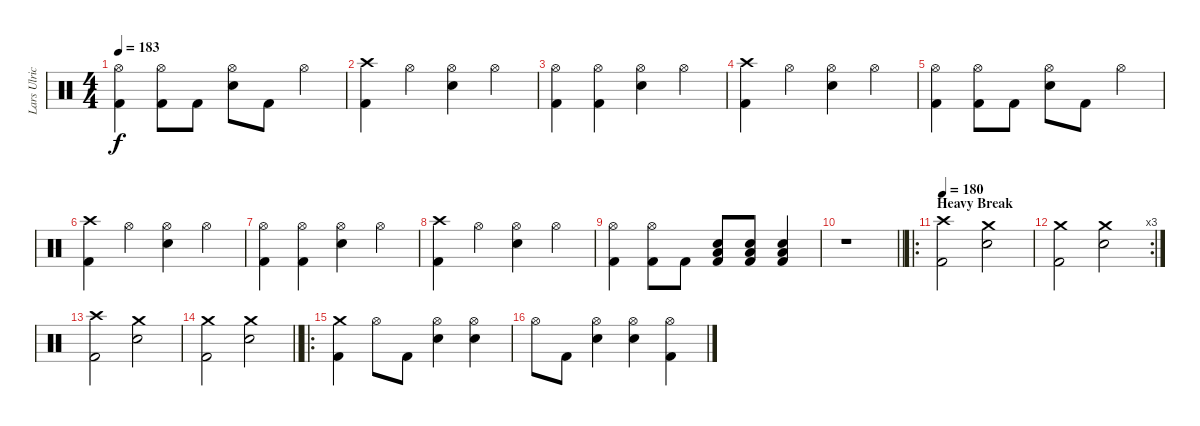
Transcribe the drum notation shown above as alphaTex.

\track ("Lars Ulrich" "Lars Ulric") {instrument percussion}
\staff {score}
\articulation defaults
\ts (4 4)
\tempo 183
\clef neutral
\ks c
("Hi-Hat (open)" "Kick (hit) 2").4{dy f} ("Hi-Hat (open)" "Kick (hit) 2").8 "Kick (hit) 2".8 ("Hi-Hat (open)" "Snare (hit) 2").8 "Kick (hit) 2".8 "Hi-Hat (open)".4 |
("Crash high (hit)" "Kick (hit) 2").4 "Hi-Hat (open)".4 ("Hi-Hat (open)" "Snare (hit) 2").4 "Hi-Hat (open)".4 |
("Hi-Hat (open)" "Kick (hit) 2").4 ("Hi-Hat (open)" "Kick (hit) 2").4 ("Hi-Hat (open)" "Snare (hit) 2").4 "Hi-Hat (open)".4 |
("Crash high (hit)" "Kick (hit) 2").4 "Hi-Hat (open)".4 ("Hi-Hat (open)" "Snare (hit) 2").4 "Hi-Hat (open)".4 |
("Hi-Hat (open)" "Kick (hit) 2").4 ("Hi-Hat (open)" "Kick (hit) 2").8 "Kick (hit) 2".8 ("Hi-Hat (open)" "Snare (hit) 2").8 "Kick (hit) 2".8 "Hi-Hat (open)".4 |
("Crash high (hit)" "Kick (hit) 2").4 "Hi-Hat (open)".4 ("Hi-Hat (open)" "Snare (hit) 2").4 "Hi-Hat (open)".4 |
("Hi-Hat (open)" "Kick (hit) 2").4 ("Hi-Hat (open)" "Kick (hit) 2").4 ("Hi-Hat (open)" "Snare (hit) 2").4 "Hi-Hat (open)".4 |
("Crash high (hit)" "Kick (hit) 2").4 "Hi-Hat (open)".4 ("Hi-Hat (open)" "Snare (hit) 2").4 "Hi-Hat (open)".4 |
("Hi-Hat (open)" "Kick (hit) 2").4 ("Hi-Hat (open)" "Kick (hit) 2").8 "Kick (hit) 2".8 ("Snare (hit) 2" "Low Floor Tom (hit)" "Kick (hit) 2").8 ("Snare (hit) 2" "Low Floor Tom (hit)" "Kick (hit) 2").8 ("Snare (hit) 2" "Low Floor Tom (hit)" "Kick (hit) 2").4 |
\barLineRight lightlight
r.1 |
\ro
\section ("" "Heavy Break")
\tempo 180
("Crash high (hit)" "Kick (hit) 2").2 ("Crash medium (hit)" "Snare (hit) 2").2 |
\rc 3
("Crash medium (hit)" "Kick (hit) 2").2 ("Crash medium (hit)" "Snare (hit) 2").2 |
("Crash high (hit)" "Kick (hit) 2").2 ("Crash medium (hit)" "Snare (hit) 2").2 |
\barLineRight lightlight
("Crash medium (hit)" "Kick (hit) 2").2 ("Crash medium (hit)" "Snare (hit) 2").2 |
\ro
("Crash medium (hit)" "Kick (hit) 2").4 "Hi-Hat (open)".8 "Kick (hit) 2".8 ("Hi-Hat (open)" "Snare (hit) 2").4 ("Hi-Hat (open)" "Snare (hit) 2").4 |
"Hi-Hat (open)".8 "Kick (hit) 2".8 ("Hi-Hat (open)" "Snare (hit) 2").4 ("Hi-Hat (open)" "Snare (hit) 2").4 ("Hi-Hat (open)" "Kick (hit) 2").4
